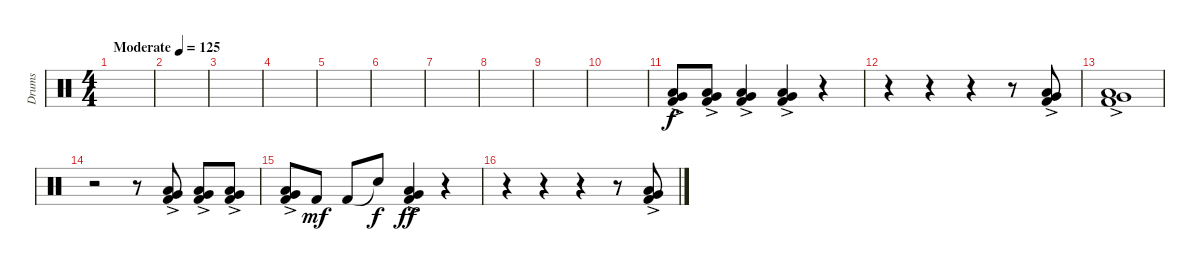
\track ("Drums" "Drums") {instrument percussion}
\staff {score}
\articulation defaults
\ts (4 4)
\tempo (125 "Moderate")
\clef neutral
\ks c
|
|
|
|
|
|
|
|
|
|
("Low Floor Tom (hit)"{ac} "Very Low Tom (hit)"{ac} "Kick (hit) 2"{ac}).8 ("Low Floor Tom (hit)"{ac} "Very Low Tom (hit)"{ac} "Kick (hit) 2"{ac}).8 ("Low Floor Tom (hit)"{ac} "Very Low Tom (hit)"{ac} "Kick (hit) 2"{ac}).4 ("Low Floor Tom (hit)"{ac} "Very Low Tom (hit)"{ac} "Kick (hit) 2"{ac}).4 r.4 |
r.4 r.4 r.4 r.8 ("Low Floor Tom (hit)"{ac} "Very Low Tom (hit)"{ac} "Kick (hit) 2"{ac}).8 |
("Low Floor Tom (hit)"{ac} "Very Low Tom (hit)"{ac} "Kick (hit) 2"{ac}).1 |
r.2 r.8 ("Low Floor Tom (hit)"{ac} "Very Low Tom (hit)"{ac} "Kick (hit) 2"{ac}).8 ("Low Floor Tom (hit)"{ac} "Very Low Tom (hit)"{ac} "Kick (hit) 2"{ac}).8 ("Low Floor Tom (hit)"{ac} "Very Low Tom (hit)"{ac} "Kick (hit) 2"{ac}).8 |
("Low Floor Tom (hit)"{ac} "Very Low Tom (hit)"{ac} "Kick (hit) 2"{ac}).8 "Kick (hit) 2".8{dy mf} "Kick (hit) 2".8 "Snare (hit)"{t}.8{dy f} ("Low Floor Tom (hit)"{ac} "Very Low Tom (hit)"{ac} "Kick (hit) 2"{ac}).4{dy ff} r.4 |
r.4 r.4 r.4 r.8 ("Low Floor Tom (hit)"{ac} "Very Low Tom (hit)"{ac} "Kick (hit) 2"{ac}).8
